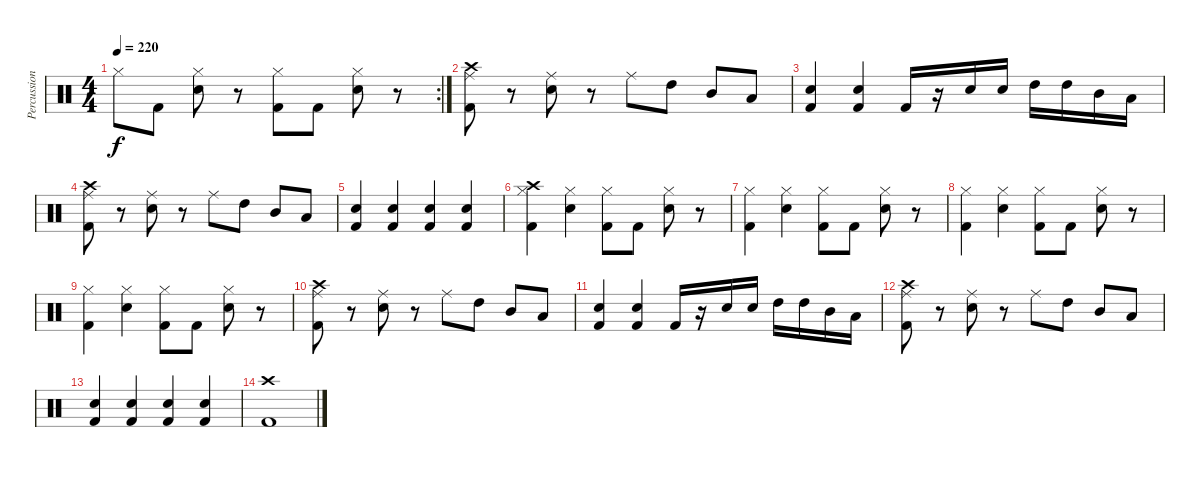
\track ("Percussions" "Percussion") {instrument percussion}
\staff {score}
\articulation defaults
\rc 2
\ts (4 4)
\tempo 220
\clef neutral
\ks c "Hi-Hat (closed)".8{dy f} "Kick (hit) 2".8
("Hi-Hat (closed)" "Electric Snare (hit)").8 r.8 ("Hi-Hat (closed)" "Kick (hit) 2").8 "Kick (hit) 2".8 ("Hi-Hat (closed)" "Electric Snare (hit)").8 r.8 |
("Crash high (hit)" "Ride (middle)" "Kick (hit) 2").8 r.8 ("Ride (middle)" "Electric Snare (hit)").8 r.8 "Ride (middle)".8 "High Tom (hit)".8 "Mid Tom (hit)".8 "Low Tom (hit)".8 |
("Electric Snare (hit)" "Kick (hit) 2").4 ("Electric Snare (hit)" "Kick (hit) 2").4 "Kick (hit) 2".16 r.16 "Electric Snare (hit)".16 "Electric Snare (hit)".16 "High Tom (hit)".16 "High Tom (hit)".16 "Mid Tom (hit)".16 "Low Tom (hit)".16 |
("Crash high (hit)" "Ride (middle)" "Kick (hit) 2").8 r.8 ("Ride (middle)" "Electric Snare (hit)").8 r.8 "Ride (middle)".8 "High Tom (hit)".8 "Mid Tom (hit)".8 "Low Tom (hit)".8 |
("Electric Snare (hit)" "Kick (hit) 2").4 ("Electric Snare (hit)" "Kick (hit) 2").4 ("Electric Snare (hit)" "Kick (hit) 2").4 ("Electric Snare (hit)" "Kick (hit) 2").4 |
("Crash high (hit)" "Hi-Hat (closed)" "Kick (hit) 2").4 ("Hi-Hat (closed)" "Electric Snare (hit)").4 ("Hi-Hat (closed)" "Kick (hit) 2").8 "Kick (hit) 2".8 ("Hi-Hat (closed)" "Electric Snare (hit)").8 r.8 |
("Hi-Hat (closed)" "Kick (hit) 2").4 ("Hi-Hat (closed)" "Electric Snare (hit)").4 ("Hi-Hat (closed)" "Kick (hit) 2").8 "Kick (hit) 2".8 ("Hi-Hat (closed)" "Electric Snare (hit)").8 r.8 |
("Hi-Hat (closed)" "Kick (hit) 2").4 ("Hi-Hat (closed)" "Electric Snare (hit)").4 ("Hi-Hat (closed)" "Kick (hit) 2").8 "Kick (hit) 2".8 ("Hi-Hat (closed)" "Electric Snare (hit)").8 r.8 |
("Hi-Hat (closed)" "Kick (hit) 2").4 ("Hi-Hat (closed)" "Electric Snare (hit)").4 ("Hi-Hat (closed)" "Kick (hit) 2").8 "Kick (hit) 2".8 ("Hi-Hat (closed)" "Electric Snare (hit)").8 r.8 |
("Crash high (hit)" "Ride (middle)" "Kick (hit) 2").8 r.8 ("Ride (middle)" "Electric Snare (hit)").8 r.8 "Ride (middle)".8 "High Tom (hit)".8 "Mid Tom (hit)".8 "Low Tom (hit)".8 |
("Electric Snare (hit)" "Kick (hit) 2").4 ("Electric Snare (hit)" "Kick (hit) 2").4 "Kick (hit) 2".16 r.16 "Electric Snare (hit)".16 "Electric Snare (hit)".16 "High Tom (hit)".16 "High Tom (hit)".16 "Mid Tom (hit)".16 "Low Tom (hit)".16 |
("Crash high (hit)" "Ride (middle)" "Kick (hit) 2").8 r.8 ("Ride (middle)" "Electric Snare (hit)").8 r.8 "Ride (middle)".8 "High Tom (hit)".8 "Mid Tom (hit)".8 "Low Tom (hit)".8 |
("Electric Snare (hit)" "Kick (hit) 2").4 ("Electric Snare (hit)" "Kick (hit) 2").4 ("Electric Snare (hit)" "Kick (hit) 2").4 ("Electric Snare (hit)" "Kick (hit) 2").4 |
("Crash high (hit)" "Kick (hit) 2").1
